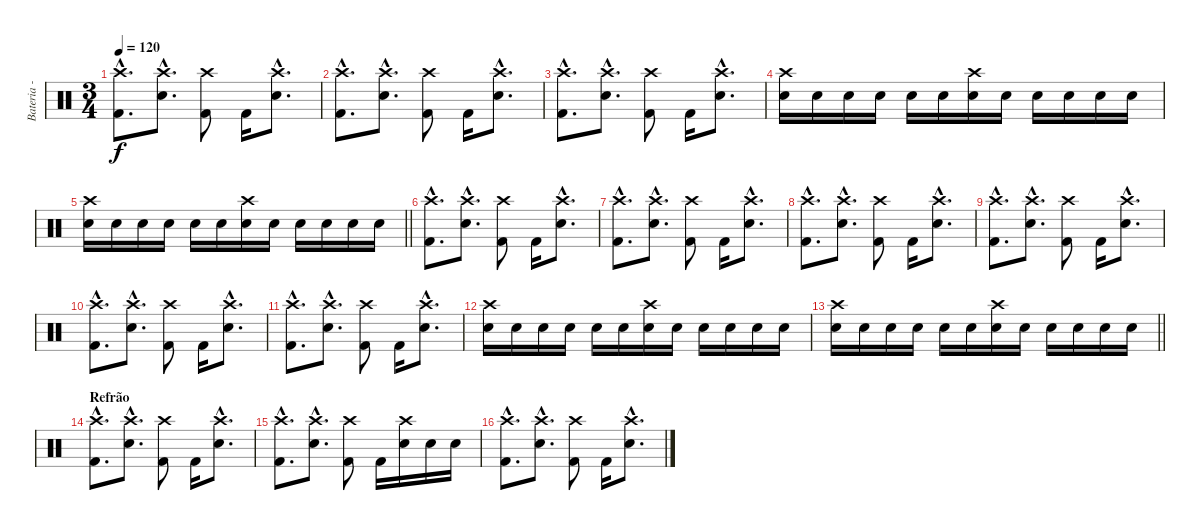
\track ("Bateria - Larzon" "Bateria - ") {instrument percussion}
\staff {score}
\articulation defaults
\ts (3 4)
\tempo 120
\clef neutral
\ks c
("Kick (hit) 2"{hac} "Crash high (hit)"{hac}).8{d dy f} ("Snare (hit) 2"{hac} "Crash high (hit)"{hac}).8{d} ("Kick (hit) 2" "Crash high (hit)").8 "Kick (hit) 2".16 ("Snare (hit) 2"{hac} "Crash high (hit)"{hac}).8{d} |
("Kick (hit) 2"{hac} "Crash high (hit)"{hac}).8{d} ("Snare (hit) 2"{hac} "Crash high (hit)"{hac}).8{d} ("Kick (hit) 2" "Crash high (hit)").8 "Kick (hit) 2".16 ("Snare (hit) 2"{hac} "Crash high (hit)"{hac}).8{d} |
("Kick (hit) 2"{hac} "Crash high (hit)"{hac}).8{d} ("Snare (hit) 2"{hac} "Crash high (hit)"{hac}).8{d} ("Kick (hit) 2" "Crash high (hit)").8 "Kick (hit) 2".16 ("Snare (hit) 2"{hac} "Crash high (hit)"{hac}).8{d} |
("Snare (hit) 2" "Crash high (hit)").16 "Snare (hit) 2".16 "Snare (hit) 2".16 "Snare (hit) 2".16 "Snare (hit) 2".16 "Snare (hit) 2".16 ("Snare (hit) 2" "Crash high (hit)").16 "Snare (hit) 2".16 "Snare (hit) 2".16 "Snare (hit) 2".16 "Snare (hit) 2".16 "Snare (hit) 2".16 |
\barLineRight lightlight
("Snare (hit) 2" "Crash high (hit)").16 "Snare (hit) 2".16 "Snare (hit) 2".16 "Snare (hit) 2".16 "Snare (hit) 2".16 "Snare (hit) 2".16 ("Snare (hit) 2" "Crash high (hit)").16 "Snare (hit) 2".16 "Snare (hit) 2".16 "Snare (hit) 2".16 "Snare (hit) 2".16 "Snare (hit) 2".16 |
("Kick (hit) 2"{hac} "Crash high (hit)"{hac}).8{d} ("Snare (hit) 2"{hac} "Crash high (hit)"{hac}).8{d} ("Kick (hit) 2" "Crash high (hit)").8 "Kick (hit) 2".16 ("Snare (hit) 2"{hac} "Crash high (hit)"{hac}).8{d} |
("Kick (hit) 2"{hac} "Crash high (hit)"{hac}).8{d} ("Snare (hit) 2"{hac} "Crash high (hit)"{hac}).8{d} ("Kick (hit) 2" "Crash high (hit)").8 "Kick (hit) 2".16 ("Snare (hit) 2"{hac} "Crash high (hit)"{hac}).8{d} |
("Kick (hit) 2"{hac} "Crash high (hit)"{hac}).8{d} ("Snare (hit) 2"{hac} "Crash high (hit)"{hac}).8{d} ("Kick (hit) 2" "Crash high (hit)").8 "Kick (hit) 2".16 ("Snare (hit) 2"{hac} "Crash high (hit)"{hac}).8{d} |
("Kick (hit) 2"{hac} "Crash high (hit)"{hac}).8{d} ("Snare (hit) 2"{hac} "Crash high (hit)"{hac}).8{d} ("Kick (hit) 2" "Crash high (hit)").8 "Kick (hit) 2".16 ("Snare (hit) 2"{hac} "Crash high (hit)"{hac}).8{d} |
("Kick (hit) 2"{hac} "Crash high (hit)"{hac}).8{d} ("Snare (hit) 2"{hac} "Crash high (hit)"{hac}).8{d} ("Kick (hit) 2" "Crash high (hit)").8 "Kick (hit) 2".16 ("Snare (hit) 2"{hac} "Crash high (hit)"{hac}).8{d} |
("Kick (hit) 2"{hac} "Crash high (hit)"{hac}).8{d} ("Snare (hit) 2"{hac} "Crash high (hit)"{hac}).8{d} ("Kick (hit) 2" "Crash high (hit)").8 "Kick (hit) 2".16 ("Snare (hit) 2"{hac} "Crash high (hit)"{hac}).8{d} |
("Snare (hit) 2" "Crash high (hit)").16 "Snare (hit) 2".16 "Snare (hit) 2".16 "Snare (hit) 2".16 "Snare (hit) 2".16 "Snare (hit) 2".16 ("Snare (hit) 2" "Crash high (hit)").16 "Snare (hit) 2".16 "Snare (hit) 2".16 "Snare (hit) 2".16 "Snare (hit) 2".16 "Snare (hit) 2".16 |
\barLineRight lightlight
("Snare (hit) 2" "Crash high (hit)").16 "Snare (hit) 2".16 "Snare (hit) 2".16 "Snare (hit) 2".16 "Snare (hit) 2".16 "Snare (hit) 2".16 ("Snare (hit) 2" "Crash high (hit)").16 "Snare (hit) 2".16 "Snare (hit) 2".16 "Snare (hit) 2".16 "Snare (hit) 2".16 "Snare (hit) 2".16 |
\section ("" "Refrão")
("Kick (hit) 2"{hac} "Crash high (hit)"{hac}).8{d} ("Snare (hit) 2"{hac} "Crash high (hit)"{hac}).8{d} ("Kick (hit) 2" "Crash high (hit)").8 "Kick (hit) 2".16 ("Snare (hit) 2"{hac} "Crash high (hit)"{hac}).8{d} |
("Kick (hit) 2"{hac} "Crash high (hit)"{hac}).8{d} ("Snare (hit) 2"{hac} "Crash high (hit)"{hac}).8{d} ("Kick (hit) 2" "Crash high (hit)").8 "Kick (hit) 2".16 ("Snare (hit) 2" "Crash high (hit)").16 "Snare (hit) 2".16 "Snare (hit) 2".16 |
("Kick (hit) 2"{hac} "Crash high (hit)"{hac}).8{d} ("Snare (hit) 2"{hac} "Crash high (hit)"{hac}).8{d} ("Kick (hit) 2" "Crash high (hit)").8 "Kick (hit) 2".16 ("Snare (hit) 2"{hac} "Crash high (hit)"{hac}).8{d}
